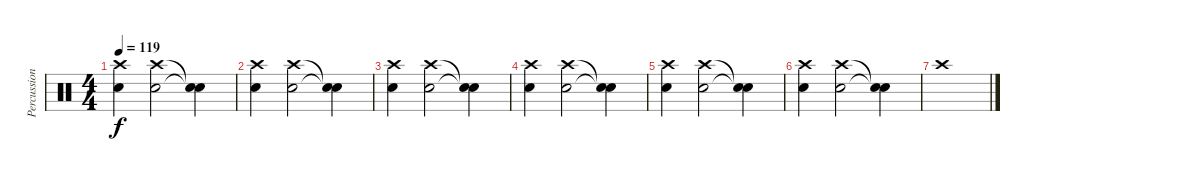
\track ("Percussion" "Percussion") {instrument percussion}
\staff {score}
\articulation defaults
\ts (4 4)
\tempo 119
\clef neutral
\ks c
("Snare (hit) 2" "Crash high (hit)").4{dy f} ("Snare (hit) 2" "Crash high (hit)").2 ("Snare (hit)"{t} "Snare (hit)"{t}).4 |
("Snare (hit) 2" "Crash high (hit)").4 ("Snare (hit) 2" "Crash high (hit)").2 ("Snare (hit)"{t} "Snare (hit)"{t}).4 |
("Snare (hit) 2" "Crash high (hit)").4{volume 0} ("Snare (hit) 2" "Crash high (hit)").2 ("Snare (hit)"{t} "Snare (hit)"{t}).4 |
("Snare (hit) 2" "Crash high (hit)").4 ("Snare (hit) 2" "Crash high (hit)").2 ("Snare (hit)"{t} "Snare (hit)"{t}).4 |
("Snare (hit) 2" "Crash high (hit)").4 ("Snare (hit) 2" "Crash high (hit)").2 ("Snare (hit)"{t} "Snare (hit)"{t}).4 |
("Snare (hit) 2" "Crash high (hit)").4 ("Snare (hit) 2" "Crash high (hit)").2 ("Snare (hit)"{t} "Snare (hit)"{t}).4 |
"Crash high (hit)".1
